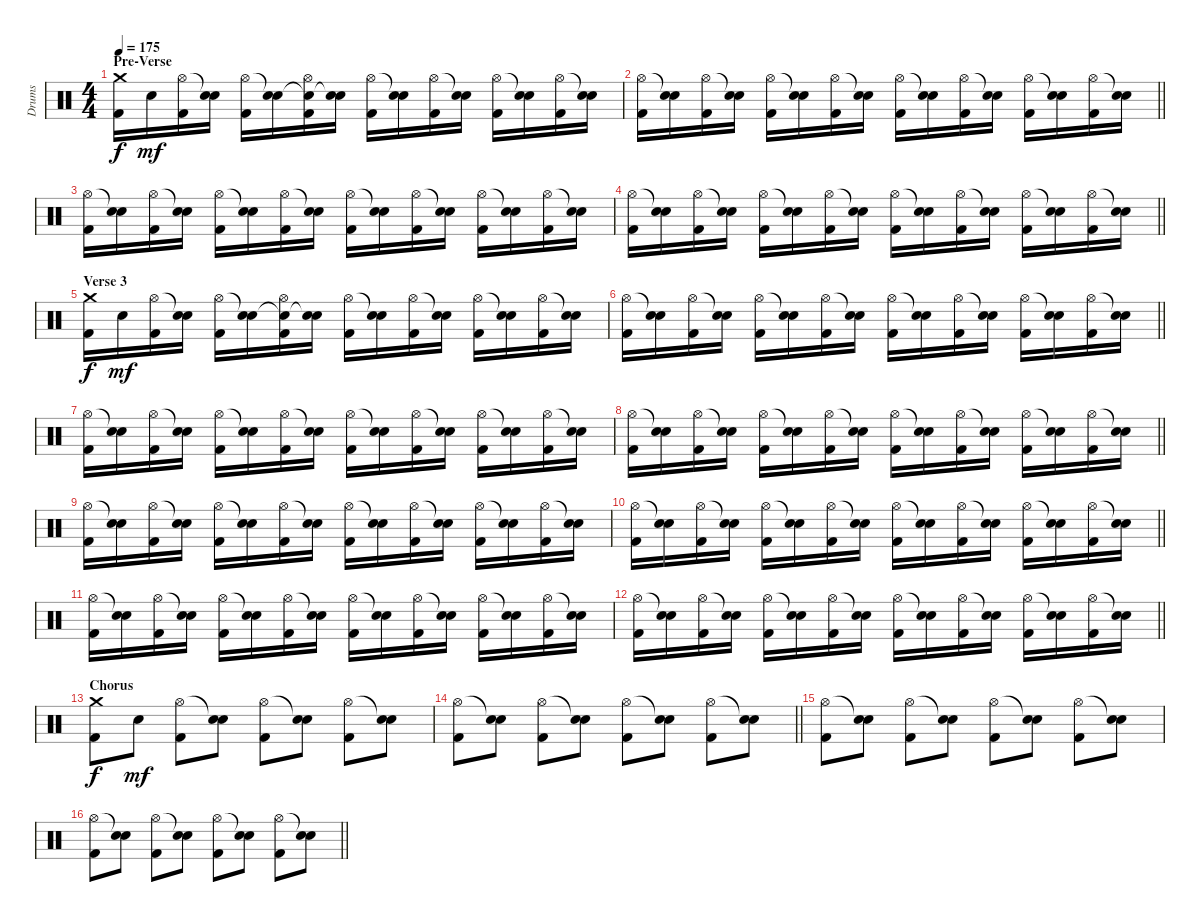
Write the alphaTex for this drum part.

\track ("Drums" "Drums") {instrument percussion}
\staff {score}
\articulation defaults
\ts (4 4)
\section ("" "Pre-Verse")
\tempo 175
\clef neutral
\ks c
("Crash medium (hit)" "Kick (hit) 2").16{dy f} "Electric Snare (hit)".16{dy mf} ("Hi-Hat (open)" "Kick (hit) 2").16 ("Snare (hit)"{t} "Electric Snare (hit)").16 ("Hi-Hat (open)" "Kick (hit) 2").16 ("Snare (hit)"{t} "Electric Snare (hit)").16 ("Snare (hit)"{t} "Hi-Hat (open)" "Kick (hit) 2").16 ("Snare (hit)"{t} "Electric Snare (hit)").16 ("Hi-Hat (open)" "Kick (hit) 2").16 ("Snare (hit)"{t} "Electric Snare (hit)").16 ("Hi-Hat (open)" "Kick (hit) 2").16 ("Snare (hit)"{t} "Electric Snare (hit)").16 ("Hi-Hat (open)" "Kick (hit) 2").16 ("Snare (hit)"{t} "Electric Snare (hit)").16 ("Hi-Hat (open)" "Kick (hit) 2").16 ("Snare (hit)"{t} "Electric Snare (hit)").16 |
\barLineRight lightlight
("Hi-Hat (open)" "Kick (hit) 2").16 ("Snare (hit)"{t} "Electric Snare (hit)").16 ("Hi-Hat (open)" "Kick (hit) 2").16 ("Snare (hit)"{t} "Electric Snare (hit)").16 ("Hi-Hat (open)" "Kick (hit) 2").16 ("Snare (hit)"{t} "Electric Snare (hit)").16 ("Hi-Hat (open)" "Kick (hit) 2").16 ("Snare (hit)"{t} "Electric Snare (hit)").16 ("Hi-Hat (open)" "Kick (hit) 2").16 ("Snare (hit)"{t} "Electric Snare (hit)").16 ("Hi-Hat (open)" "Kick (hit) 2").16 ("Snare (hit)"{t} "Electric Snare (hit)").16 ("Hi-Hat (open)" "Kick (hit) 2").16 ("Snare (hit)"{t} "Electric Snare (hit)").16 ("Hi-Hat (open)" "Kick (hit) 2").16 ("Snare (hit)"{t} "Electric Snare (hit)").16 |
("Hi-Hat (open)" "Kick (hit) 2").16 ("Snare (hit)"{t} "Electric Snare (hit)").16 ("Hi-Hat (open)" "Kick (hit) 2").16 ("Snare (hit)"{t} "Electric Snare (hit)").16 ("Hi-Hat (open)" "Kick (hit) 2").16 ("Snare (hit)"{t} "Electric Snare (hit)").16 ("Hi-Hat (open)" "Kick (hit) 2").16 ("Snare (hit)"{t} "Electric Snare (hit)").16 ("Hi-Hat (open)" "Kick (hit) 2").16 ("Snare (hit)"{t} "Electric Snare (hit)").16 ("Hi-Hat (open)" "Kick (hit) 2").16 ("Snare (hit)"{t} "Electric Snare (hit)").16 ("Hi-Hat (open)" "Kick (hit) 2").16 ("Snare (hit)"{t} "Electric Snare (hit)").16 ("Hi-Hat (open)" "Kick (hit) 2").16 ("Snare (hit)"{t} "Electric Snare (hit)").16 |
\barLineRight lightlight
("Hi-Hat (open)" "Kick (hit) 2").16 ("Snare (hit)"{t} "Electric Snare (hit)").16 ("Hi-Hat (open)" "Kick (hit) 2").16 ("Snare (hit)"{t} "Electric Snare (hit)").16 ("Hi-Hat (open)" "Kick (hit) 2").16 ("Snare (hit)"{t} "Electric Snare (hit)").16 ("Hi-Hat (open)" "Kick (hit) 2").16 ("Snare (hit)"{t} "Electric Snare (hit)").16 ("Hi-Hat (open)" "Kick (hit) 2").16 ("Snare (hit)"{t} "Electric Snare (hit)").16 ("Hi-Hat (open)" "Kick (hit) 2").16 ("Snare (hit)"{t} "Electric Snare (hit)").16 ("Hi-Hat (open)" "Kick (hit) 2").16 ("Snare (hit)"{t} "Electric Snare (hit)").16 ("Hi-Hat (open)" "Kick (hit) 2").16 ("Snare (hit)"{t} "Electric Snare (hit)").16 |
\section ("" "Verse 3")
("Crash medium (hit)" "Kick (hit) 2").16{dy f} "Electric Snare (hit)".16{dy mf} ("Hi-Hat (open)" "Kick (hit) 2").16 ("Snare (hit)"{t} "Electric Snare (hit)").16 ("Hi-Hat (open)" "Kick (hit) 2").16 ("Snare (hit)"{t} "Electric Snare (hit)").16 ("Snare (hit)"{t} "Hi-Hat (open)" "Kick (hit) 2").16 ("Snare (hit)"{t} "Electric Snare (hit)").16 ("Hi-Hat (open)" "Kick (hit) 2").16 ("Snare (hit)"{t} "Electric Snare (hit)").16 ("Hi-Hat (open)" "Kick (hit) 2").16 ("Snare (hit)"{t} "Electric Snare (hit)").16 ("Hi-Hat (open)" "Kick (hit) 2").16 ("Snare (hit)"{t} "Electric Snare (hit)").16 ("Hi-Hat (open)" "Kick (hit) 2").16 ("Snare (hit)"{t} "Electric Snare (hit)").16 |
\barLineRight lightlight
("Hi-Hat (open)" "Kick (hit) 2").16 ("Snare (hit)"{t} "Electric Snare (hit)").16 ("Hi-Hat (open)" "Kick (hit) 2").16 ("Snare (hit)"{t} "Electric Snare (hit)").16 ("Hi-Hat (open)" "Kick (hit) 2").16 ("Snare (hit)"{t} "Electric Snare (hit)").16 ("Hi-Hat (open)" "Kick (hit) 2").16 ("Snare (hit)"{t} "Electric Snare (hit)").16 ("Hi-Hat (open)" "Kick (hit) 2").16 ("Snare (hit)"{t} "Electric Snare (hit)").16 ("Hi-Hat (open)" "Kick (hit) 2").16 ("Snare (hit)"{t} "Electric Snare (hit)").16 ("Hi-Hat (open)" "Kick (hit) 2").16 ("Snare (hit)"{t} "Electric Snare (hit)").16 ("Hi-Hat (open)" "Kick (hit) 2").16 ("Snare (hit)"{t} "Electric Snare (hit)").16 |
("Hi-Hat (open)" "Kick (hit) 2").16 ("Snare (hit)"{t} "Electric Snare (hit)").16 ("Hi-Hat (open)" "Kick (hit) 2").16 ("Snare (hit)"{t} "Electric Snare (hit)").16 ("Hi-Hat (open)" "Kick (hit) 2").16 ("Snare (hit)"{t} "Electric Snare (hit)").16 ("Hi-Hat (open)" "Kick (hit) 2").16 ("Snare (hit)"{t} "Electric Snare (hit)").16 ("Hi-Hat (open)" "Kick (hit) 2").16 ("Snare (hit)"{t} "Electric Snare (hit)").16 ("Hi-Hat (open)" "Kick (hit) 2").16 ("Snare (hit)"{t} "Electric Snare (hit)").16 ("Hi-Hat (open)" "Kick (hit) 2").16 ("Snare (hit)"{t} "Electric Snare (hit)").16 ("Hi-Hat (open)" "Kick (hit) 2").16 ("Snare (hit)"{t} "Electric Snare (hit)").16 |
\barLineRight lightlight
("Hi-Hat (open)" "Kick (hit) 2").16 ("Snare (hit)"{t} "Electric Snare (hit)").16 ("Hi-Hat (open)" "Kick (hit) 2").16 ("Snare (hit)"{t} "Electric Snare (hit)").16 ("Hi-Hat (open)" "Kick (hit) 2").16 ("Snare (hit)"{t} "Electric Snare (hit)").16 ("Hi-Hat (open)" "Kick (hit) 2").16 ("Snare (hit)"{t} "Electric Snare (hit)").16 ("Hi-Hat (open)" "Kick (hit) 2").16 ("Snare (hit)"{t} "Electric Snare (hit)").16 ("Hi-Hat (open)" "Kick (hit) 2").16 ("Snare (hit)"{t} "Electric Snare (hit)").16 ("Hi-Hat (open)" "Kick (hit) 2").16 ("Snare (hit)"{t} "Electric Snare (hit)").16 ("Hi-Hat (open)" "Kick (hit) 2").16 ("Snare (hit)"{t} "Electric Snare (hit)").16 |
("Hi-Hat (open)" "Kick (hit) 2").16 ("Snare (hit)"{t} "Electric Snare (hit)").16 ("Hi-Hat (open)" "Kick (hit) 2").16 ("Snare (hit)"{t} "Electric Snare (hit)").16 ("Hi-Hat (open)" "Kick (hit) 2").16 ("Snare (hit)"{t} "Electric Snare (hit)").16 ("Hi-Hat (open)" "Kick (hit) 2").16 ("Snare (hit)"{t} "Electric Snare (hit)").16 ("Hi-Hat (open)" "Kick (hit) 2").16 ("Snare (hit)"{t} "Electric Snare (hit)").16 ("Hi-Hat (open)" "Kick (hit) 2").16 ("Snare (hit)"{t} "Electric Snare (hit)").16 ("Hi-Hat (open)" "Kick (hit) 2").16 ("Snare (hit)"{t} "Electric Snare (hit)").16 ("Hi-Hat (open)" "Kick (hit) 2").16 ("Snare (hit)"{t} "Electric Snare (hit)").16 |
\barLineRight lightlight
("Hi-Hat (open)" "Kick (hit) 2").16 ("Snare (hit)"{t} "Electric Snare (hit)").16 ("Hi-Hat (open)" "Kick (hit) 2").16 ("Snare (hit)"{t} "Electric Snare (hit)").16 ("Hi-Hat (open)" "Kick (hit) 2").16 ("Snare (hit)"{t} "Electric Snare (hit)").16 ("Hi-Hat (open)" "Kick (hit) 2").16 ("Snare (hit)"{t} "Electric Snare (hit)").16 ("Hi-Hat (open)" "Kick (hit) 2").16 ("Snare (hit)"{t} "Electric Snare (hit)").16 ("Hi-Hat (open)" "Kick (hit) 2").16 ("Snare (hit)"{t} "Electric Snare (hit)").16 ("Hi-Hat (open)" "Kick (hit) 2").16 ("Snare (hit)"{t} "Electric Snare (hit)").16 ("Hi-Hat (open)" "Kick (hit) 2").16 ("Snare (hit)"{t} "Electric Snare (hit)").16 |
("Hi-Hat (open)" "Kick (hit) 2").16 ("Snare (hit)"{t} "Electric Snare (hit)").16 ("Hi-Hat (open)" "Kick (hit) 2").16 ("Snare (hit)"{t} "Electric Snare (hit)").16 ("Hi-Hat (open)" "Kick (hit) 2").16 ("Snare (hit)"{t} "Electric Snare (hit)").16 ("Hi-Hat (open)" "Kick (hit) 2").16 ("Snare (hit)"{t} "Electric Snare (hit)").16 ("Hi-Hat (open)" "Kick (hit) 2").16 ("Snare (hit)"{t} "Electric Snare (hit)").16 ("Hi-Hat (open)" "Kick (hit) 2").16 ("Snare (hit)"{t} "Electric Snare (hit)").16 ("Hi-Hat (open)" "Kick (hit) 2").16 ("Snare (hit)"{t} "Electric Snare (hit)").16 ("Hi-Hat (open)" "Kick (hit) 2").16 ("Snare (hit)"{t} "Electric Snare (hit)").16 |
\barLineRight lightlight
("Hi-Hat (open)" "Kick (hit) 2").16 ("Snare (hit)"{t} "Electric Snare (hit)").16 ("Hi-Hat (open)" "Kick (hit) 2").16 ("Snare (hit)"{t} "Electric Snare (hit)").16 ("Hi-Hat (open)" "Kick (hit) 2").16 ("Snare (hit)"{t} "Electric Snare (hit)").16 ("Hi-Hat (open)" "Kick (hit) 2").16 ("Snare (hit)"{t} "Electric Snare (hit)").16 ("Hi-Hat (open)" "Kick (hit) 2").16 ("Snare (hit)"{t} "Electric Snare (hit)").16 ("Hi-Hat (open)" "Kick (hit) 2").16 ("Snare (hit)"{t} "Electric Snare (hit)").16 ("Hi-Hat (open)" "Kick (hit) 2").16 ("Snare (hit)"{t} "Electric Snare (hit)").16 ("Hi-Hat (open)" "Kick (hit) 2").16 ("Snare (hit)"{t} "Electric Snare (hit)").16 |
\section ("" "Chorus")
("Crash medium (hit)" "Kick (hit) 2").8{dy f} "Electric Snare (hit)".8{dy mf} ("Hi-Hat (open)" "Kick (hit) 2").8 ("Snare (hit)"{t} "Electric Snare (hit)").8 ("Hi-Hat (open)" "Kick (hit) 2").8 ("Snare (hit)"{t} "Electric Snare (hit)").8 ("Hi-Hat (open)" "Kick (hit) 2").8 ("Snare (hit)"{t} "Electric Snare (hit)").8 |
\barLineRight lightlight
("Hi-Hat (open)" "Kick (hit) 2").8 ("Snare (hit)"{t} "Electric Snare (hit)").8 ("Hi-Hat (open)" "Kick (hit) 2").8 ("Snare (hit)"{t} "Electric Snare (hit)").8 ("Hi-Hat (open)" "Kick (hit) 2").8 ("Snare (hit)"{t} "Electric Snare (hit)").8 ("Hi-Hat (open)" "Kick (hit) 2").8 ("Snare (hit)"{t} "Electric Snare (hit)").8 |
("Hi-Hat (open)" "Kick (hit) 2").8 ("Snare (hit)"{t} "Electric Snare (hit)").8 ("Hi-Hat (open)" "Kick (hit) 2").8 ("Snare (hit)"{t} "Electric Snare (hit)").8 ("Hi-Hat (open)" "Kick (hit) 2").8 ("Snare (hit)"{t} "Electric Snare (hit)").8 ("Hi-Hat (open)" "Kick (hit) 2").8 ("Snare (hit)"{t} "Electric Snare (hit)").8 |
\barLineRight lightlight
("Hi-Hat (open)" "Kick (hit) 2").8 ("Snare (hit)"{t} "Electric Snare (hit)").8 ("Hi-Hat (open)" "Kick (hit) 2").8 ("Snare (hit)"{t} "Electric Snare (hit)").8 ("Hi-Hat (open)" "Kick (hit) 2").8 ("Snare (hit)"{t} "Electric Snare (hit)").8 ("Hi-Hat (open)" "Kick (hit) 2").8 ("Snare (hit)"{t} "Electric Snare (hit)").8
